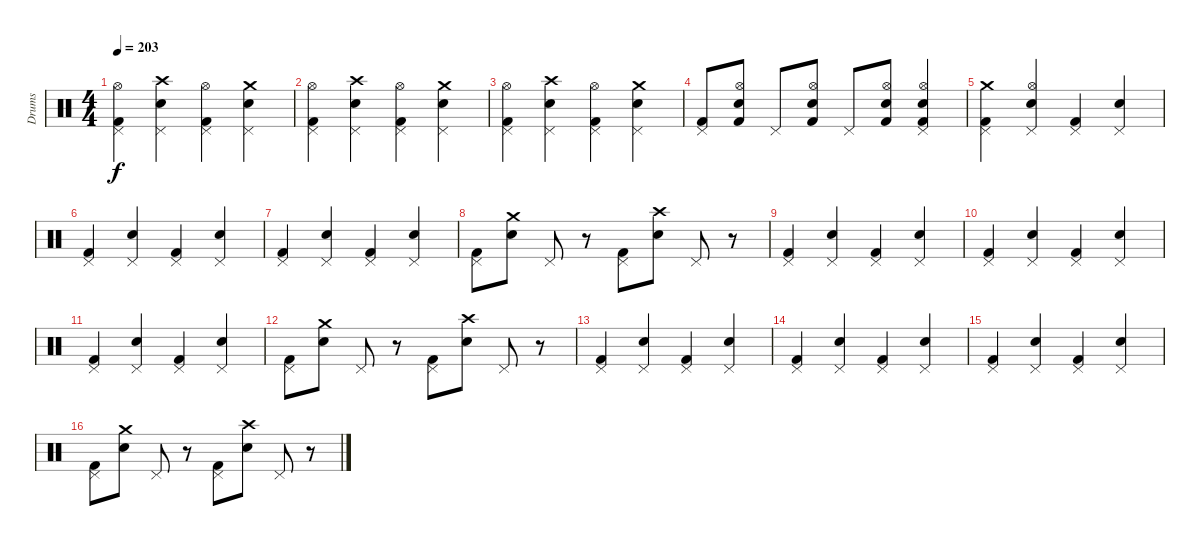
\track ("Drums" "Drums") {instrument percussion}
\staff {score}
\articulation defaults
\ts (4 4)
\tempo 203
\clef neutral
\ks c
("Pedal Hi-Hat (hit)" "Kick (hit) 2" "Hi-Hat (open)").4{dy f} ("Pedal Hi-Hat (hit)" "Snare (hit) 2" "Crash high (hit)").4 ("Pedal Hi-Hat (hit)" "Kick (hit) 2" "Hi-Hat (open)").4 ("Pedal Hi-Hat (hit)" "Snare (hit) 2" "Crash medium (hit)").4 |
("Pedal Hi-Hat (hit)" "Kick (hit) 2" "Hi-Hat (open)").4 ("Pedal Hi-Hat (hit)" "Snare (hit) 2" "Crash high (hit)").4 ("Pedal Hi-Hat (hit)" "Kick (hit) 2" "Hi-Hat (open)").4 ("Pedal Hi-Hat (hit)" "Snare (hit) 2" "Crash medium (hit)").4 |
("Pedal Hi-Hat (hit)" "Kick (hit) 2" "Hi-Hat (open)").4 ("Pedal Hi-Hat (hit)" "Snare (hit) 2" "Crash high (hit)").4 ("Pedal Hi-Hat (hit)" "Kick (hit) 2" "Hi-Hat (open)").4 ("Pedal Hi-Hat (hit)" "Snare (hit) 2" "Crash medium (hit)").4 |
("Pedal Hi-Hat (hit)" "Kick (hit) 2").8 ("Hi-Hat (open)" "Snare (hit) 2" "Kick (hit) 2").8 "Pedal Hi-Hat (hit)".8 ("Hi-Hat (open)" "Snare (hit) 2" "Kick (hit) 2").8 "Pedal Hi-Hat (hit)".8 ("Hi-Hat (open)" "Snare (hit) 2" "Kick (hit) 2").8 ("Hi-Hat (open)" "Pedal Hi-Hat (hit)" "Snare (hit) 2" "Kick (hit) 2").4 |
("Crash medium (hit)" "Pedal Hi-Hat (hit)" "Kick (hit) 2").4 ("Hi-Hat (open)" "Pedal Hi-Hat (hit)" "Snare (hit) 2").4 ("Pedal Hi-Hat (hit)" "Kick (hit) 2").4 ("Pedal Hi-Hat (hit)" "Snare (hit) 2").4 |
("Pedal Hi-Hat (hit)" "Kick (hit) 2").4 ("Pedal Hi-Hat (hit)" "Snare (hit) 2").4 ("Pedal Hi-Hat (hit)" "Kick (hit) 2").4 ("Pedal Hi-Hat (hit)" "Snare (hit) 2").4 |
("Pedal Hi-Hat (hit)" "Kick (hit) 2").4 ("Pedal Hi-Hat (hit)" "Snare (hit) 2").4 ("Pedal Hi-Hat (hit)" "Kick (hit) 2").4 ("Pedal Hi-Hat (hit)" "Snare (hit) 2").4 |
("Pedal Hi-Hat (hit)" "Kick (hit) 2").8 ("Crash medium (hit)" "Snare (hit) 2").8 "Pedal Hi-Hat (hit)".8 r.8 ("Pedal Hi-Hat (hit)" "Kick (hit) 2").8 ("Crash high (hit)" "Snare (hit) 2").8 "Pedal Hi-Hat (hit)".8 r.8 |
("Pedal Hi-Hat (hit)" "Kick (hit) 2").4 ("Pedal Hi-Hat (hit)" "Snare (hit) 2").4 ("Pedal Hi-Hat (hit)" "Kick (hit) 2").4 ("Pedal Hi-Hat (hit)" "Snare (hit) 2").4 |
("Pedal Hi-Hat (hit)" "Kick (hit) 2").4 ("Pedal Hi-Hat (hit)" "Snare (hit) 2").4 ("Pedal Hi-Hat (hit)" "Kick (hit) 2").4 ("Pedal Hi-Hat (hit)" "Snare (hit) 2").4 |
("Pedal Hi-Hat (hit)" "Kick (hit) 2").4 ("Pedal Hi-Hat (hit)" "Snare (hit) 2").4 ("Pedal Hi-Hat (hit)" "Kick (hit) 2").4 ("Pedal Hi-Hat (hit)" "Snare (hit) 2").4 |
("Pedal Hi-Hat (hit)" "Kick (hit) 2").8 ("Crash medium (hit)" "Snare (hit) 2").8 "Pedal Hi-Hat (hit)".8 r.8 ("Pedal Hi-Hat (hit)" "Kick (hit) 2").8 ("Snare (hit) 2" "Crash high (hit)").8 "Pedal Hi-Hat (hit)".8 r.8 |
("Pedal Hi-Hat (hit)" "Kick (hit) 2").4 ("Pedal Hi-Hat (hit)" "Snare (hit) 2").4 ("Pedal Hi-Hat (hit)" "Kick (hit) 2").4 ("Pedal Hi-Hat (hit)" "Snare (hit) 2").4 |
("Pedal Hi-Hat (hit)" "Kick (hit) 2").4 ("Pedal Hi-Hat (hit)" "Snare (hit) 2").4 ("Pedal Hi-Hat (hit)" "Kick (hit) 2").4 ("Pedal Hi-Hat (hit)" "Snare (hit) 2").4 |
("Pedal Hi-Hat (hit)" "Kick (hit) 2").4 ("Pedal Hi-Hat (hit)" "Snare (hit) 2").4 ("Pedal Hi-Hat (hit)" "Kick (hit) 2").4 ("Pedal Hi-Hat (hit)" "Snare (hit) 2").4 |
("Pedal Hi-Hat (hit)" "Kick (hit) 2").8 ("Crash medium (hit)" "Snare (hit) 2").8 "Pedal Hi-Hat (hit)".8 r.8 ("Pedal Hi-Hat (hit)" "Kick (hit) 2").8 ("Crash high (hit)" "Snare (hit) 2").8 "Pedal Hi-Hat (hit)".8 r.8
